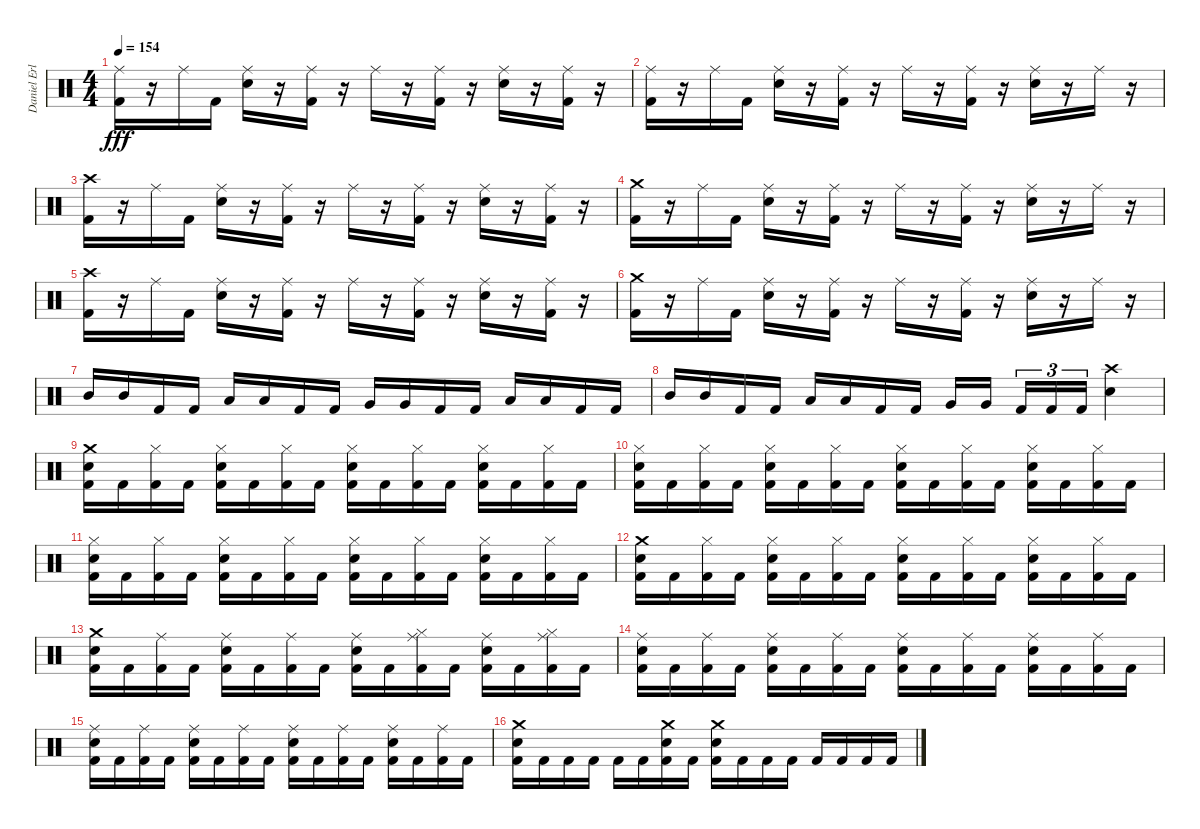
\track ("Daniel Erlandsson" "Daniel Erl") {instrument percussion}
\staff {score}
\articulation defaults
\ts (4 4)
\tempo 154
\clef neutral
\ks c
("Ride (middle)" "Kick (hit) 2").16{dy fff} r.16 "Ride (middle)".16 "Kick (hit) 2".16 ("Ride (middle)" "Electric Snare (hit)").16 r.16 ("Ride (middle)" "Kick (hit) 2").16 r.16 "Ride (middle)".16 r.16 ("Ride (middle)" "Kick (hit) 2").16 r.16 ("Ride (middle)" "Electric Snare (hit)").16 r.16 ("Ride (middle)" "Kick (hit) 2").16 r.16 |
("Ride (middle)" "Kick (hit) 2").16 r.16 "Ride (middle)".16 "Kick (hit) 2".16 ("Ride (middle)" "Electric Snare (hit)").16 r.16 ("Ride (middle)" "Kick (hit) 2").16 r.16 "Ride (middle)".16 r.16 ("Ride (middle)" "Kick (hit) 2").16 r.16 ("Ride (middle)" "Electric Snare (hit)").16 r.16 "Ride (middle)".16 r.16 |
("Crash high (hit)" "Kick (hit) 2").16 r.16 "Ride (middle)".16 "Kick (hit) 2".16 ("Ride (middle)" "Electric Snare (hit)").16 r.16 ("Ride (middle)" "Kick (hit) 2").16 r.16 "Ride (middle)".16 r.16 ("Ride (middle)" "Kick (hit) 2").16 r.16 ("Ride (middle)" "Electric Snare (hit)").16 r.16 ("Ride (middle)" "Kick (hit) 2").16 r.16 |
("Crash medium (hit)" "Kick (hit) 2").16 r.16 "Ride (middle)".16 "Kick (hit) 2".16 ("Ride (middle)" "Electric Snare (hit)").16 r.16 ("Ride (middle)" "Kick (hit) 2").16 r.16 "Ride (middle)".16 r.16 ("Ride (middle)" "Kick (hit) 2").16 r.16 ("Ride (middle)" "Electric Snare (hit)").16 r.16 "Ride (middle)".16 r.16 |
("Crash high (hit)" "Kick (hit) 2").16 r.16 "Ride (middle)".16 "Kick (hit) 2".16 ("Ride (middle)" "Electric Snare (hit)").16 r.16 ("Ride (middle)" "Kick (hit) 2").16 r.16 "Ride (middle)".16 r.16 ("Ride (middle)" "Kick (hit) 2").16 r.16 ("Ride (middle)" "Electric Snare (hit)").16 r.16 ("Ride (middle)" "Kick (hit) 2").16 r.16 |
("Crash medium (hit)" "Kick (hit) 2").16 r.16 "Ride (middle)".16 "Kick (hit) 2".16 ("Ride (middle)" "Electric Snare (hit)").16 r.16 ("Ride (middle)" "Kick (hit) 2").16 r.16 "Ride (middle)".16 r.16 ("Ride (middle)" "Kick (hit) 2").16 r.16 ("Ride (middle)" "Electric Snare (hit)").16 r.16 "Ride (middle)".16 r.16 |
"Mid Tom (hit)".16 "Mid Tom (hit)".16 "Kick (hit) 2".16 "Kick (hit) 2".16 "Low Tom (hit)".16 "Low Tom (hit)".16 "Kick (hit) 2".16 "Kick (hit) 2".16 "Very Low Tom (hit)".16 "Very Low Tom (hit)".16 "Kick (hit) 2".16 "Kick (hit) 2".16 "Low Floor Tom (hit)".16 "Low Floor Tom (hit)".16 "Kick (hit) 2".16 "Kick (hit) 2".16 |
"Mid Tom (hit)".16 "Mid Tom (hit)".16 "Kick (hit) 2".16 "Kick (hit) 2".16 "Low Tom (hit)".16 "Low Tom (hit)".16 "Kick (hit) 2".16 "Kick (hit) 2".16 "Very Low Tom (hit)".16 "Very Low Tom (hit)".16{beam splitsecondary} "Kick (hit) 2".16{tu (3 2)} "Kick (hit) 2".16{tu (3 2)} "Kick (hit) 2".16{tu (3 2)} ("Crash high (hit)" "Electric Snare (hit)").4 |
("Crash medium (hit)" "Electric Snare (hit)" "Kick (hit) 2").16 "Kick (hit) 2".16 ("Hi-Hat (closed)" "Kick (hit) 2").16 "Kick (hit) 2".16 ("Hi-Hat (closed)" "Electric Snare (hit)" "Kick (hit) 2").16 "Kick (hit) 2".16 ("Hi-Hat (closed)" "Kick (hit) 2").16 "Kick (hit) 2".16 ("Hi-Hat (closed)" "Electric Snare (hit)" "Kick (hit) 2").16 "Kick (hit) 2".16 ("Hi-Hat (closed)" "Kick (hit) 2").16 "Kick (hit) 2".16 ("Hi-Hat (closed)" "Electric Snare (hit)" "Kick (hit) 2").16 "Kick (hit) 2".16 ("Hi-Hat (closed)" "Kick (hit) 2").16 "Kick (hit) 2".16 |
("Hi-Hat (closed)" "Electric Snare (hit)" "Kick (hit) 2").16 "Kick (hit) 2".16 ("Hi-Hat (closed)" "Kick (hit) 2").16 "Kick (hit) 2".16 ("Hi-Hat (closed)" "Electric Snare (hit)" "Kick (hit) 2").16 "Kick (hit) 2".16 ("Hi-Hat (closed)" "Kick (hit) 2").16 "Kick (hit) 2".16 ("Hi-Hat (closed)" "Electric Snare (hit)" "Kick (hit) 2").16 "Kick (hit) 2".16 ("Hi-Hat (closed)" "Kick (hit) 2").16 "Kick (hit) 2".16 ("Hi-Hat (closed)" "Electric Snare (hit)" "Kick (hit) 2").16 "Kick (hit) 2".16 ("Hi-Hat (closed)" "Kick (hit) 2").16 "Kick (hit) 2".16 |
("Hi-Hat (closed)" "Electric Snare (hit)" "Kick (hit) 2").16 "Kick (hit) 2".16 ("Hi-Hat (closed)" "Kick (hit) 2").16 "Kick (hit) 2".16 ("Hi-Hat (closed)" "Electric Snare (hit)" "Kick (hit) 2").16 "Kick (hit) 2".16 ("Hi-Hat (closed)" "Kick (hit) 2").16 "Kick (hit) 2".16 ("Hi-Hat (closed)" "Electric Snare (hit)" "Kick (hit) 2").16 "Kick (hit) 2".16 ("Hi-Hat (closed)" "Kick (hit) 2").16 "Kick (hit) 2".16 ("Hi-Hat (closed)" "Electric Snare (hit)" "Kick (hit) 2").16 "Kick (hit) 2".16 ("Hi-Hat (closed)" "Kick (hit) 2").16 "Kick (hit) 2".16 |
("Crash medium (hit)" "Electric Snare (hit)" "Kick (hit) 2").16 "Kick (hit) 2".16 ("Hi-Hat (closed)" "Kick (hit) 2").16 "Kick (hit) 2".16 ("Hi-Hat (closed)" "Electric Snare (hit)" "Kick (hit) 2").16 "Kick (hit) 2".16 ("Hi-Hat (closed)" "Kick (hit) 2").16 "Kick (hit) 2".16 ("Hi-Hat (closed)" "Electric Snare (hit)" "Kick (hit) 2").16 "Kick (hit) 2".16 ("Hi-Hat (closed)" "Kick (hit) 2").16 "Kick (hit) 2".16 ("Hi-Hat (closed)" "Electric Snare (hit)" "Kick (hit) 2").16 "Kick (hit) 2".16 ("Hi-Hat (closed)" "Kick (hit) 2").16 "Kick (hit) 2".16 |
("Crash medium (hit)" "Electric Snare (hit)" "Kick (hit) 2").16 "Kick (hit) 2".16 ("Ride (middle)" "Kick (hit) 2").16 "Kick (hit) 2".16 ("Ride (middle)" "Electric Snare (hit)" "Kick (hit) 2").16 "Kick (hit) 2".16 ("Ride (middle)" "Kick (hit) 2").16 "Kick (hit) 2".16 ("Ride (middle)" "Electric Snare (hit)" "Kick (hit) 2").16 "Kick (hit) 2".16 ("Hi-Hat (closed)" "Ride (middle)" "Kick (hit) 2").16 "Kick (hit) 2".16 ("Ride (middle)" "Electric Snare (hit)" "Kick (hit) 2").16 "Kick (hit) 2".16 ("Hi-Hat (closed)" "Ride (middle)" "Kick (hit) 2").16 "Kick (hit) 2".16 |
("Ride (middle)" "Electric Snare (hit)" "Kick (hit) 2").16 "Kick (hit) 2".16 ("Ride (middle)" "Kick (hit) 2").16 "Kick (hit) 2".16 ("Ride (middle)" "Electric Snare (hit)" "Kick (hit) 2").16 "Kick (hit) 2".16 ("Ride (middle)" "Kick (hit) 2").16 "Kick (hit) 2".16 ("Ride (middle)" "Electric Snare (hit)" "Kick (hit) 2").16 "Kick (hit) 2".16 ("Ride (middle)" "Kick (hit) 2").16 "Kick (hit) 2".16 ("Ride (middle)" "Electric Snare (hit)" "Kick (hit) 2").16 "Kick (hit) 2".16 ("Ride (middle)" "Kick (hit) 2").16 "Kick (hit) 2".16 |
("Ride (middle)" "Electric Snare (hit)" "Kick (hit) 2").16 "Kick (hit) 2".16 ("Ride (middle)" "Kick (hit) 2").16 "Kick (hit) 2".16 ("Ride (middle)" "Electric Snare (hit)" "Kick (hit) 2").16 "Kick (hit) 2".16 ("Ride (middle)" "Kick (hit) 2").16 "Kick (hit) 2".16 ("Ride (middle)" "Electric Snare (hit)" "Kick (hit) 2").16 "Kick (hit) 2".16 ("Ride (middle)" "Kick (hit) 2").16 "Kick (hit) 2".16 ("Ride (middle)" "Electric Snare (hit)" "Kick (hit) 2").16 "Kick (hit) 2".16 ("Ride (middle)" "Kick (hit) 2").16 "Kick (hit) 2".16 |
("Crash medium (hit)" "Electric Snare (hit)" "Kick (hit) 2").16 "Kick (hit) 2".16 "Kick (hit) 2".16 "Kick (hit) 2".16 "Kick (hit) 2".16 "Kick (hit) 2".16 ("Crash medium (hit)" "Electric Snare (hit)" "Kick (hit) 2").16 "Kick (hit) 2".16 ("Crash medium (hit)" "Electric Snare (hit)" "Kick (hit) 2").16 "Kick (hit) 2".16 "Kick (hit) 2".16 "Kick (hit) 2".16 "Kick (hit) 2".16 "Kick (hit) 2".16 "Kick (hit) 2".16 "Kick (hit) 2".16
